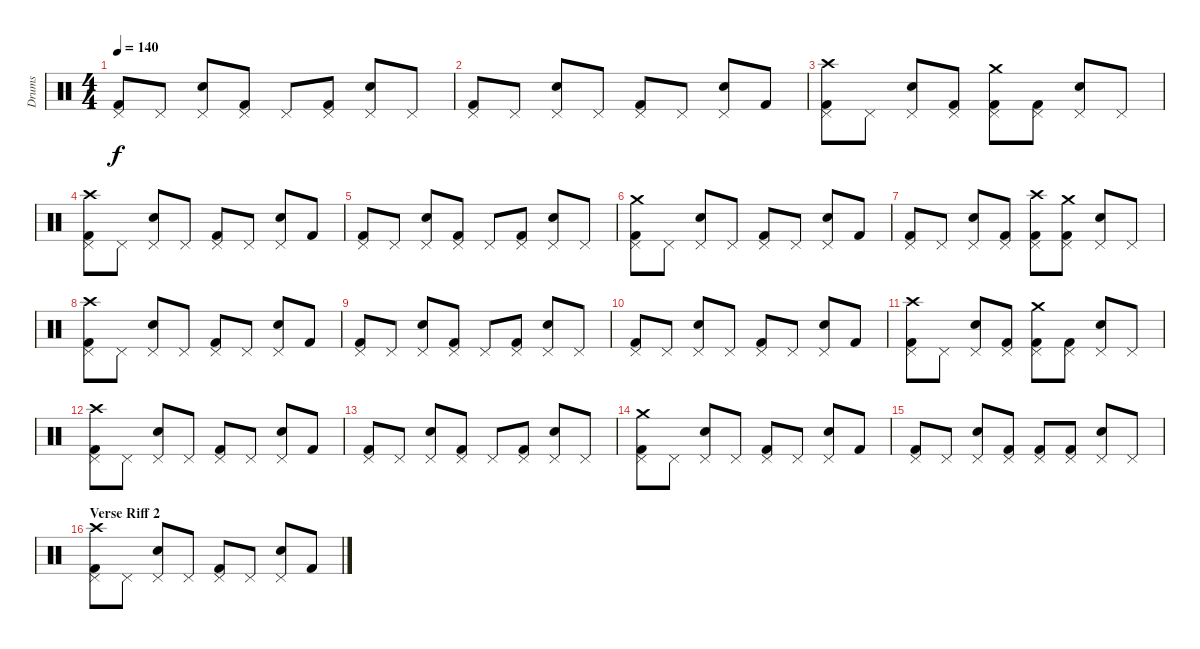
\track ("Drums" "Drums") {instrument percussion}
\staff {score}
\articulation defaults
\ts (4 4)
\tempo 140
\clef neutral
\ks c
("Kick (hit) 2" "Pedal Hi-Hat (hit)").8{dy f} "Pedal Hi-Hat (hit)".8 ("Snare (hit) 2" "Pedal Hi-Hat (hit)").8 ("Kick (hit) 2" "Pedal Hi-Hat (hit)").8 "Pedal Hi-Hat (hit)".8 ("Kick (hit) 2" "Pedal Hi-Hat (hit)").8 ("Snare (hit) 2" "Pedal Hi-Hat (hit)").8 "Pedal Hi-Hat (hit)".8 |
("Kick (hit) 2" "Pedal Hi-Hat (hit)").8 "Pedal Hi-Hat (hit)".8 ("Snare (hit) 2" "Pedal Hi-Hat (hit)").8 "Pedal Hi-Hat (hit)".8 ("Kick (hit) 2" "Pedal Hi-Hat (hit)").8 "Pedal Hi-Hat (hit)".8 ("Snare (hit) 2" "Pedal Hi-Hat (hit)").8 "Kick (hit) 2".8 |
("Kick (hit) 2" "Pedal Hi-Hat (hit)" "Crash high (hit)").8 "Pedal Hi-Hat (hit)".8 ("Snare (hit) 2" "Pedal Hi-Hat (hit)").8 ("Kick (hit) 2" "Pedal Hi-Hat (hit)").8 ("Kick (hit) 2" "Pedal Hi-Hat (hit)" "Crash medium (hit)").8 ("Kick (hit) 2" "Pedal Hi-Hat (hit)").8 ("Snare (hit) 2" "Pedal Hi-Hat (hit)").8 "Pedal Hi-Hat (hit)".8 |
("Kick (hit) 2" "Pedal Hi-Hat (hit)" "Crash high (hit)").8 "Pedal Hi-Hat (hit)".8 ("Snare (hit) 2" "Pedal Hi-Hat (hit)").8 "Pedal Hi-Hat (hit)".8 ("Kick (hit) 2" "Pedal Hi-Hat (hit)").8 "Pedal Hi-Hat (hit)".8 ("Snare (hit) 2" "Pedal Hi-Hat (hit)").8 "Kick (hit) 2".8 |
("Kick (hit) 2" "Pedal Hi-Hat (hit)").8 "Pedal Hi-Hat (hit)".8 ("Snare (hit) 2" "Pedal Hi-Hat (hit)").8 ("Kick (hit) 2" "Pedal Hi-Hat (hit)").8 "Pedal Hi-Hat (hit)".8 ("Kick (hit) 2" "Pedal Hi-Hat (hit)").8 ("Snare (hit) 2" "Pedal Hi-Hat (hit)").8 "Pedal Hi-Hat (hit)".8 |
("Kick (hit) 2" "Pedal Hi-Hat (hit)" "Crash medium (hit)").8 "Pedal Hi-Hat (hit)".8 ("Snare (hit) 2" "Pedal Hi-Hat (hit)").8 "Pedal Hi-Hat (hit)".8 ("Kick (hit) 2" "Pedal Hi-Hat (hit)").8 "Pedal Hi-Hat (hit)".8 ("Snare (hit) 2" "Pedal Hi-Hat (hit)").8 "Kick (hit) 2".8 |
("Kick (hit) 2" "Pedal Hi-Hat (hit)").8 "Pedal Hi-Hat (hit)".8 ("Snare (hit) 2" "Pedal Hi-Hat (hit)").8 ("Kick (hit) 2" "Pedal Hi-Hat (hit)").8 ("Kick (hit) 2" "Pedal Hi-Hat (hit)" "Crash high (hit)").8 ("Kick (hit) 2" "Pedal Hi-Hat (hit)" "Crash medium (hit)").8 ("Snare (hit) 2" "Pedal Hi-Hat (hit)").8 "Pedal Hi-Hat (hit)".8 |
("Kick (hit) 2" "Pedal Hi-Hat (hit)" "Crash high (hit)").8 "Pedal Hi-Hat (hit)".8 ("Snare (hit) 2" "Pedal Hi-Hat (hit)").8 "Pedal Hi-Hat (hit)".8 ("Kick (hit) 2" "Pedal Hi-Hat (hit)").8 "Pedal Hi-Hat (hit)".8 ("Snare (hit) 2" "Pedal Hi-Hat (hit)").8 "Kick (hit) 2".8 |
("Kick (hit) 2" "Pedal Hi-Hat (hit)").8 "Pedal Hi-Hat (hit)".8 ("Snare (hit) 2" "Pedal Hi-Hat (hit)").8 ("Kick (hit) 2" "Pedal Hi-Hat (hit)").8 "Pedal Hi-Hat (hit)".8 ("Kick (hit) 2" "Pedal Hi-Hat (hit)").8 ("Snare (hit) 2" "Pedal Hi-Hat (hit)").8 "Pedal Hi-Hat (hit)".8 |
("Kick (hit) 2" "Pedal Hi-Hat (hit)").8 "Pedal Hi-Hat (hit)".8 ("Snare (hit) 2" "Pedal Hi-Hat (hit)").8 "Pedal Hi-Hat (hit)".8 ("Kick (hit) 2" "Pedal Hi-Hat (hit)").8 "Pedal Hi-Hat (hit)".8 ("Snare (hit) 2" "Pedal Hi-Hat (hit)").8 "Kick (hit) 2".8 |
("Kick (hit) 2" "Pedal Hi-Hat (hit)" "Crash high (hit)").8 "Pedal Hi-Hat (hit)".8 ("Snare (hit) 2" "Pedal Hi-Hat (hit)").8 ("Kick (hit) 2" "Pedal Hi-Hat (hit)").8 ("Kick (hit) 2" "Pedal Hi-Hat (hit)" "Crash medium (hit)").8 ("Kick (hit) 2" "Pedal Hi-Hat (hit)").8 ("Snare (hit) 2" "Pedal Hi-Hat (hit)").8 "Pedal Hi-Hat (hit)".8 |
("Kick (hit) 2" "Pedal Hi-Hat (hit)" "Crash high (hit)").8 "Pedal Hi-Hat (hit)".8 ("Snare (hit) 2" "Pedal Hi-Hat (hit)").8 "Pedal Hi-Hat (hit)".8 ("Kick (hit) 2" "Pedal Hi-Hat (hit)").8 "Pedal Hi-Hat (hit)".8 ("Snare (hit) 2" "Pedal Hi-Hat (hit)").8 "Kick (hit) 2".8 |
("Kick (hit) 2" "Pedal Hi-Hat (hit)").8 "Pedal Hi-Hat (hit)".8 ("Snare (hit) 2" "Pedal Hi-Hat (hit)").8 ("Kick (hit) 2" "Pedal Hi-Hat (hit)").8 "Pedal Hi-Hat (hit)".8 ("Kick (hit) 2" "Pedal Hi-Hat (hit)").8 ("Snare (hit) 2" "Pedal Hi-Hat (hit)").8 "Pedal Hi-Hat (hit)".8 |
("Kick (hit) 2" "Pedal Hi-Hat (hit)" "Crash medium (hit)").8 "Pedal Hi-Hat (hit)".8 ("Snare (hit) 2" "Pedal Hi-Hat (hit)").8 "Pedal Hi-Hat (hit)".8 ("Kick (hit) 2" "Pedal Hi-Hat (hit)").8 "Pedal Hi-Hat (hit)".8 ("Snare (hit) 2" "Pedal Hi-Hat (hit)").8 "Kick (hit) 2".8 |
("Kick (hit) 2" "Pedal Hi-Hat (hit)").8 "Pedal Hi-Hat (hit)".8 ("Snare (hit) 2" "Pedal Hi-Hat (hit)").8 ("Kick (hit) 2" "Pedal Hi-Hat (hit)").8 ("Kick (hit) 2" "Pedal Hi-Hat (hit)").8 ("Kick (hit) 2" "Pedal Hi-Hat (hit)").8 ("Snare (hit) 2" "Pedal Hi-Hat (hit)").8 "Pedal Hi-Hat (hit)".8 |
\section ("" "Verse Riff 2")
("Kick (hit) 2" "Pedal Hi-Hat (hit)" "Crash high (hit)").8 "Pedal Hi-Hat (hit)".8 ("Snare (hit) 2" "Pedal Hi-Hat (hit)").8 "Pedal Hi-Hat (hit)".8 ("Kick (hit) 2" "Pedal Hi-Hat (hit)").8 "Pedal Hi-Hat (hit)".8 ("Snare (hit) 2" "Pedal Hi-Hat (hit)").8 "Kick (hit) 2".8
